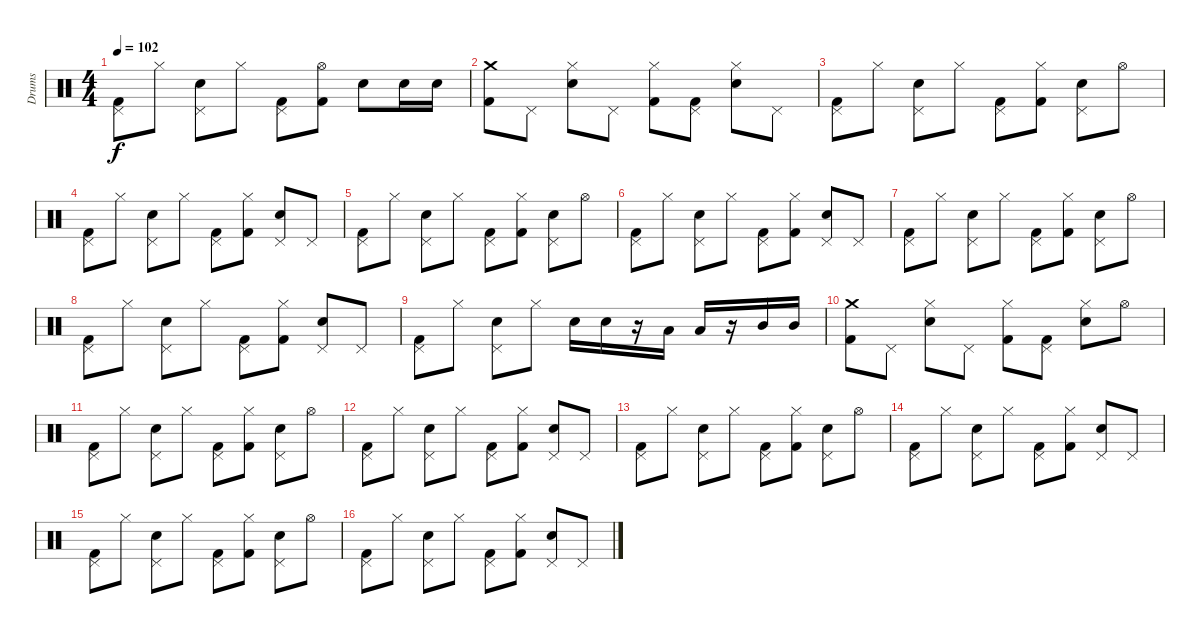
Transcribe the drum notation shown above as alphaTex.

\track ("Drums" "Drums") {instrument percussion}
\staff {score}
\articulation defaults
\ts (4 4)
\tempo 102
\clef neutral
\ks c
("Pedal Hi-Hat (hit)" "Kick (hit) 2").8{dy f} "Hi-Hat (closed)".8 ("Pedal Hi-Hat (hit)" "Electric Snare (hit)").8 "Hi-Hat (closed)".8 ("Pedal Hi-Hat (hit)" "Kick (hit) 2").8 ("Hi-Hat (open)" "Kick (hit) 2").8 "Electric Snare (hit)".8 "Electric Snare (hit)".16 "Electric Snare (hit)".16 |
("Crash medium (hit)" "Kick (hit) 2").8 "Pedal Hi-Hat (hit)".8 ("Hi-Hat (closed)" "Electric Snare (hit)").8 "Pedal Hi-Hat (hit)".8 ("Hi-Hat (closed)" "Kick (hit) 2").8 ("Pedal Hi-Hat (hit)" "Kick (hit) 2").8 ("Hi-Hat (closed)" "Electric Snare (hit)").8 "Pedal Hi-Hat (hit)".8 |
("Pedal Hi-Hat (hit)" "Kick (hit) 2").8 "Hi-Hat (closed)".8 ("Pedal Hi-Hat (hit)" "Electric Snare (hit)").8 "Hi-Hat (closed)".8 ("Pedal Hi-Hat (hit)" "Kick (hit) 2").8 ("Hi-Hat (closed)" "Kick (hit) 2").8 ("Pedal Hi-Hat (hit)" "Electric Snare (hit)").8 "Hi-Hat (open)".8 |
("Pedal Hi-Hat (hit)" "Kick (hit) 2").8 "Hi-Hat (closed)".8 ("Pedal Hi-Hat (hit)" "Electric Snare (hit)").8 "Hi-Hat (closed)".8 ("Pedal Hi-Hat (hit)" "Kick (hit) 2").8 ("Hi-Hat (closed)" "Kick (hit) 2").8 ("Pedal Hi-Hat (hit)" "Electric Snare (hit)").8 "Pedal Hi-Hat (hit)".8 |
("Pedal Hi-Hat (hit)" "Kick (hit) 2").8 "Hi-Hat (closed)".8 ("Pedal Hi-Hat (hit)" "Electric Snare (hit)").8 "Hi-Hat (closed)".8 ("Pedal Hi-Hat (hit)" "Kick (hit) 2").8 ("Hi-Hat (closed)" "Kick (hit) 2").8 ("Pedal Hi-Hat (hit)" "Electric Snare (hit)").8 "Hi-Hat (open)".8 |
("Pedal Hi-Hat (hit)" "Kick (hit) 2").8 "Hi-Hat (closed)".8 ("Pedal Hi-Hat (hit)" "Electric Snare (hit)").8 "Hi-Hat (closed)".8 ("Pedal Hi-Hat (hit)" "Kick (hit) 2").8 ("Hi-Hat (closed)" "Kick (hit) 2").8 ("Pedal Hi-Hat (hit)" "Electric Snare (hit)").8 "Pedal Hi-Hat (hit)".8 |
("Pedal Hi-Hat (hit)" "Kick (hit) 2").8 "Hi-Hat (closed)".8 ("Pedal Hi-Hat (hit)" "Electric Snare (hit)").8 "Hi-Hat (closed)".8 ("Pedal Hi-Hat (hit)" "Kick (hit) 2").8 ("Hi-Hat (closed)" "Kick (hit) 2").8 ("Pedal Hi-Hat (hit)" "Electric Snare (hit)").8 "Hi-Hat (open)".8 |
("Pedal Hi-Hat (hit)" "Kick (hit) 2").8 "Hi-Hat (closed)".8 ("Pedal Hi-Hat (hit)" "Electric Snare (hit)").8 "Hi-Hat (closed)".8 ("Pedal Hi-Hat (hit)" "Kick (hit) 2").8 ("Hi-Hat (closed)" "Kick (hit) 2").8 ("Pedal Hi-Hat (hit)" "Electric Snare (hit)").8 "Pedal Hi-Hat (hit)".8 |
("Pedal Hi-Hat (hit)" "Kick (hit) 2").8 "Hi-Hat (closed)".8 ("Pedal Hi-Hat (hit)" "Electric Snare (hit)").8 "Hi-Hat (closed)".8 "Electric Snare (hit)".16 "Electric Snare (hit)".16 r.16 "Low Tom (hit)".16 "Low Tom (hit)".16 r.16 "Mid Tom (hit)".16 "Mid Tom (hit)".16 |
("Crash medium (hit)" "Kick (hit) 2").8 "Pedal Hi-Hat (hit)".8 ("Hi-Hat (closed)" "Electric Snare (hit)").8 "Pedal Hi-Hat (hit)".8 ("Hi-Hat (closed)" "Kick (hit) 2").8 ("Pedal Hi-Hat (hit)" "Kick (hit) 2").8 ("Hi-Hat (closed)" "Electric Snare (hit)").8 "Hi-Hat (open)".8 |
("Pedal Hi-Hat (hit)" "Kick (hit) 2").8 "Hi-Hat (closed)".8 ("Pedal Hi-Hat (hit)" "Electric Snare (hit)").8 "Hi-Hat (closed)".8 ("Pedal Hi-Hat (hit)" "Kick (hit) 2").8 ("Hi-Hat (closed)" "Kick (hit) 2").8 ("Pedal Hi-Hat (hit)" "Electric Snare (hit)").8 "Hi-Hat (open)".8 |
("Pedal Hi-Hat (hit)" "Kick (hit) 2").8 "Hi-Hat (closed)".8 ("Pedal Hi-Hat (hit)" "Electric Snare (hit)").8 "Hi-Hat (closed)".8 ("Pedal Hi-Hat (hit)" "Kick (hit) 2").8 ("Hi-Hat (closed)" "Kick (hit) 2").8 ("Pedal Hi-Hat (hit)" "Electric Snare (hit)").8 "Pedal Hi-Hat (hit)".8 |
("Pedal Hi-Hat (hit)" "Kick (hit) 2").8 "Hi-Hat (closed)".8 ("Pedal Hi-Hat (hit)" "Electric Snare (hit)").8 "Hi-Hat (closed)".8 ("Pedal Hi-Hat (hit)" "Kick (hit) 2").8 ("Hi-Hat (closed)" "Kick (hit) 2").8 ("Pedal Hi-Hat (hit)" "Electric Snare (hit)").8 "Hi-Hat (open)".8 |
("Pedal Hi-Hat (hit)" "Kick (hit) 2").8 "Hi-Hat (closed)".8 ("Pedal Hi-Hat (hit)" "Electric Snare (hit)").8 "Hi-Hat (closed)".8 ("Pedal Hi-Hat (hit)" "Kick (hit) 2").8 ("Hi-Hat (closed)" "Kick (hit) 2").8 ("Pedal Hi-Hat (hit)" "Electric Snare (hit)").8 "Pedal Hi-Hat (hit)".8 |
("Pedal Hi-Hat (hit)" "Kick (hit) 2").8 "Hi-Hat (closed)".8 ("Pedal Hi-Hat (hit)" "Electric Snare (hit)").8 "Hi-Hat (closed)".8 ("Pedal Hi-Hat (hit)" "Kick (hit) 2").8 ("Hi-Hat (closed)" "Kick (hit) 2").8 ("Pedal Hi-Hat (hit)" "Electric Snare (hit)").8 "Hi-Hat (open)".8 |
("Pedal Hi-Hat (hit)" "Kick (hit) 2").8 "Hi-Hat (closed)".8 ("Pedal Hi-Hat (hit)" "Electric Snare (hit)").8 "Hi-Hat (closed)".8 ("Pedal Hi-Hat (hit)" "Kick (hit) 2").8 ("Hi-Hat (closed)" "Kick (hit) 2").8 ("Pedal Hi-Hat (hit)" "Electric Snare (hit)").8 "Pedal Hi-Hat (hit)".8
